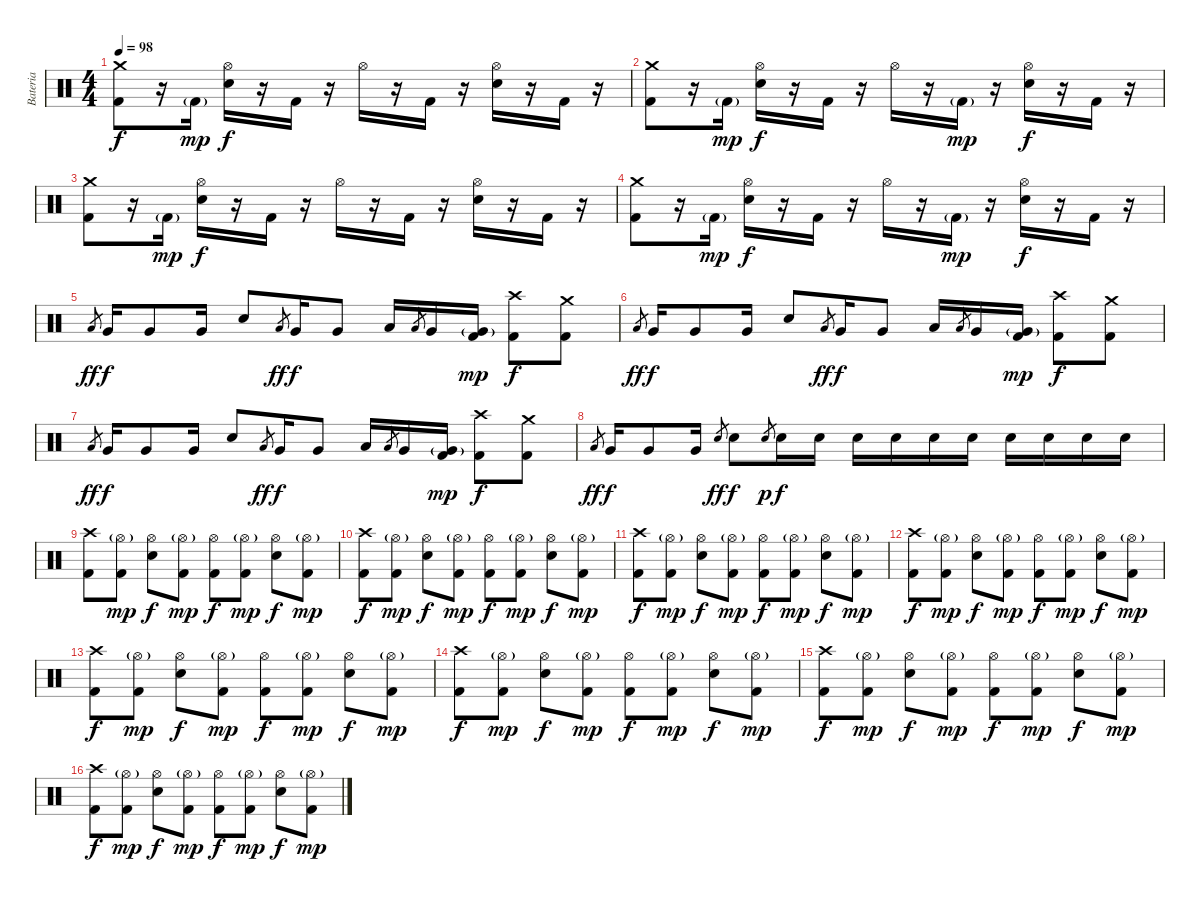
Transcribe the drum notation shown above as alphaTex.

\track ("Bateria" "Bateria") {instrument percussion}
\staff {score}
\articulation defaults
\ts (4 4)
\tempo 98
\clef neutral
\ks c
("Crash medium (hit)" "Kick (hit) 2").8{dy f} r.16 "Kick (hit) 2"{g}.16{dy mp} ("Hi-Hat (open)" "Snare (hit) 2").16{dy f} r.16 "Kick (hit) 2".16 r.16 "Hi-Hat (open)".16 r.16 "Kick (hit) 2".16 r.16 ("Hi-Hat (open)" "Snare (hit) 2").16 r.16 "Kick (hit) 2".16 r.16 |
("Crash medium (hit)" "Kick (hit) 2").8 r.16 "Kick (hit) 2"{g}.16{dy mp} ("Hi-Hat (open)" "Snare (hit) 2").16{dy f} r.16 "Kick (hit) 2".16 r.16 "Hi-Hat (open)".16 r.16 "Kick (hit) 2"{g}.16{dy mp} r.16 ("Hi-Hat (open)" "Snare (hit) 2").16{dy f} r.16 "Kick (hit) 2".16 r.16 |
("Crash medium (hit)" "Kick (hit) 2").8 r.16 "Kick (hit) 2"{g}.16{dy mp} ("Hi-Hat (open)" "Snare (hit) 2").16{dy f} r.16 "Kick (hit) 2".16 r.16 "Hi-Hat (open)".16 r.16 "Kick (hit) 2".16 r.16 ("Hi-Hat (open)" "Snare (hit) 2").16 r.16 "Kick (hit) 2".16 r.16 |
("Crash medium (hit)" "Kick (hit) 2").8 r.16 "Kick (hit) 2"{g}.16{dy mp} ("Hi-Hat (open)" "Snare (hit) 2").16{dy f} r.16 "Kick (hit) 2".16 r.16 "Hi-Hat (open)".16 r.16 "Kick (hit) 2"{g}.16{dy mp} r.16 ("Hi-Hat (open)" "Snare (hit) 2").16{dy f} r.16 "Kick (hit) 2".16 r.16 |
"Low Tom (hit)".8{gr dy ff} "Very Low Tom (hit)".16{dy f} "Very Low Tom (hit)".8 "Very Low Tom (hit)".16 "Snare (hit) 2".8 "Low Tom (hit)".8{gr dy ff} "Very Low Tom (hit)".16{dy f} "Very Low Tom (hit)".8 "Low Floor Tom (hit)".16 "Low Tom (hit)".8{gr} "Very Low Tom (hit)".16 ("Very Low Tom (hit)"{g} "Kick (hit) 2").16{dy mp} ("Crash high (hit)" "Kick (hit) 2").8{dy f} ("Crash medium (hit)" "Kick (hit) 2").8 |
"Low Tom (hit)".8{gr dy ff} "Very Low Tom (hit)".16{dy f} "Very Low Tom (hit)".8 "Very Low Tom (hit)".16 "Snare (hit) 2".8 "Low Tom (hit)".8{gr dy ff} "Very Low Tom (hit)".16{dy f} "Very Low Tom (hit)".8 "Low Floor Tom (hit)".16 "Low Tom (hit)".8{gr} "Very Low Tom (hit)".16 ("Very Low Tom (hit)"{g} "Kick (hit) 2").16{dy mp} ("Crash high (hit)" "Kick (hit) 2").8{dy f} ("Crash medium (hit)" "Kick (hit) 2").8 |
"Low Tom (hit)".8{gr dy ff} "Very Low Tom (hit)".16{dy f} "Very Low Tom (hit)".8 "Very Low Tom (hit)".16 "Snare (hit) 2".8 "Low Tom (hit)".8{gr dy ff} "Very Low Tom (hit)".16{dy f} "Very Low Tom (hit)".8 "Low Floor Tom (hit)".16 "Low Tom (hit)".8{gr} "Very Low Tom (hit)".16 ("Very Low Tom (hit)"{g} "Kick (hit) 2").16{dy mp} ("Crash high (hit)" "Kick (hit) 2").8{dy f} ("Crash medium (hit)" "Kick (hit) 2").8 |
"Low Tom (hit)".8{gr dy ff} "Very Low Tom (hit)".16{dy f} "Very Low Tom (hit)".8 "Very Low Tom (hit)".16 "Snare (hit) 2".8{gr dy ff} "Snare (hit) 2".8{dy f} "Snare (hit) 2".8{gr dy p} "Snare (hit) 2".16{dy f} "Snare (hit) 2".16 "Snare (hit) 2".16 "Snare (hit) 2".16 "Snare (hit) 2".16 "Snare (hit) 2".16 "Snare (hit) 2".16 "Snare (hit) 2".16 "Snare (hit) 2".16 "Snare (hit) 2".16 |
("Crash high (hit)" "Kick (hit) 2").8 ("Hi-Hat (open)"{g} "Kick (hit) 2").8{dy mp} ("Hi-Hat (open)" "Snare (hit) 2").8{dy f} ("Hi-Hat (open)"{g} "Kick (hit) 2").8{dy mp} ("Hi-Hat (open)" "Kick (hit) 2").8{dy f} ("Hi-Hat (open)"{g} "Kick (hit) 2").8{dy mp} ("Hi-Hat (open)" "Snare (hit) 2").8{dy f} ("Hi-Hat (open)"{g} "Kick (hit) 2").8{dy mp} |
("Crash high (hit)" "Kick (hit) 2").8{dy f} ("Hi-Hat (open)"{g} "Kick (hit) 2").8{dy mp} ("Hi-Hat (open)" "Snare (hit) 2").8{dy f} ("Hi-Hat (open)"{g} "Kick (hit) 2").8{dy mp} ("Hi-Hat (open)" "Kick (hit) 2").8{dy f} ("Hi-Hat (open)"{g} "Kick (hit) 2").8{dy mp} ("Hi-Hat (open)" "Snare (hit) 2").8{dy f} ("Hi-Hat (open)"{g} "Kick (hit) 2").8{dy mp} |
("Crash high (hit)" "Kick (hit) 2").8{dy f} ("Hi-Hat (open)"{g} "Kick (hit) 2").8{dy mp} ("Hi-Hat (open)" "Snare (hit) 2").8{dy f} ("Hi-Hat (open)"{g} "Kick (hit) 2").8{dy mp} ("Hi-Hat (open)" "Kick (hit) 2").8{dy f} ("Hi-Hat (open)"{g} "Kick (hit) 2").8{dy mp} ("Hi-Hat (open)" "Snare (hit) 2").8{dy f} ("Hi-Hat (open)"{g} "Kick (hit) 2").8{dy mp} |
("Crash high (hit)" "Kick (hit) 2").8{dy f} ("Hi-Hat (open)"{g} "Kick (hit) 2").8{dy mp} ("Hi-Hat (open)" "Snare (hit) 2").8{dy f} ("Hi-Hat (open)"{g} "Kick (hit) 2").8{dy mp} ("Hi-Hat (open)" "Kick (hit) 2").8{dy f} ("Hi-Hat (open)"{g} "Kick (hit) 2").8{dy mp} ("Hi-Hat (open)" "Snare (hit) 2").8{dy f} ("Hi-Hat (open)"{g} "Kick (hit) 2").8{dy mp} |
("Crash high (hit)" "Kick (hit) 2").8{dy f} ("Hi-Hat (open)"{g} "Kick (hit) 2").8{dy mp} ("Hi-Hat (open)" "Snare (hit) 2").8{dy f} ("Hi-Hat (open)"{g} "Kick (hit) 2").8{dy mp} ("Hi-Hat (open)" "Kick (hit) 2").8{dy f} ("Hi-Hat (open)"{g} "Kick (hit) 2").8{dy mp} ("Hi-Hat (open)" "Snare (hit) 2").8{dy f} ("Hi-Hat (open)"{g} "Kick (hit) 2").8{dy mp} |
("Crash high (hit)" "Kick (hit) 2").8{dy f} ("Hi-Hat (open)"{g} "Kick (hit) 2").8{dy mp} ("Hi-Hat (open)" "Snare (hit) 2").8{dy f} ("Hi-Hat (open)"{g} "Kick (hit) 2").8{dy mp} ("Hi-Hat (open)" "Kick (hit) 2").8{dy f} ("Hi-Hat (open)"{g} "Kick (hit) 2").8{dy mp} ("Hi-Hat (open)" "Snare (hit) 2").8{dy f} ("Hi-Hat (open)"{g} "Kick (hit) 2").8{dy mp} |
("Crash high (hit)" "Kick (hit) 2").8{dy f} ("Hi-Hat (open)"{g} "Kick (hit) 2").8{dy mp} ("Hi-Hat (open)" "Snare (hit) 2").8{dy f} ("Hi-Hat (open)"{g} "Kick (hit) 2").8{dy mp} ("Hi-Hat (open)" "Kick (hit) 2").8{dy f} ("Hi-Hat (open)"{g} "Kick (hit) 2").8{dy mp} ("Hi-Hat (open)" "Snare (hit) 2").8{dy f} ("Hi-Hat (open)"{g} "Kick (hit) 2").8{dy mp} |
("Crash high (hit)" "Kick (hit) 2").8{dy f} ("Hi-Hat (open)"{g} "Kick (hit) 2").8{dy mp} ("Hi-Hat (open)" "Snare (hit) 2").8{dy f} ("Hi-Hat (open)"{g} "Kick (hit) 2").8{dy mp} ("Hi-Hat (open)" "Kick (hit) 2").8{dy f} ("Hi-Hat (open)"{g} "Kick (hit) 2").8{dy mp} ("Hi-Hat (open)" "Snare (hit) 2").8{dy f} ("Hi-Hat (open)"{g} "Kick (hit) 2").8{dy mp}
